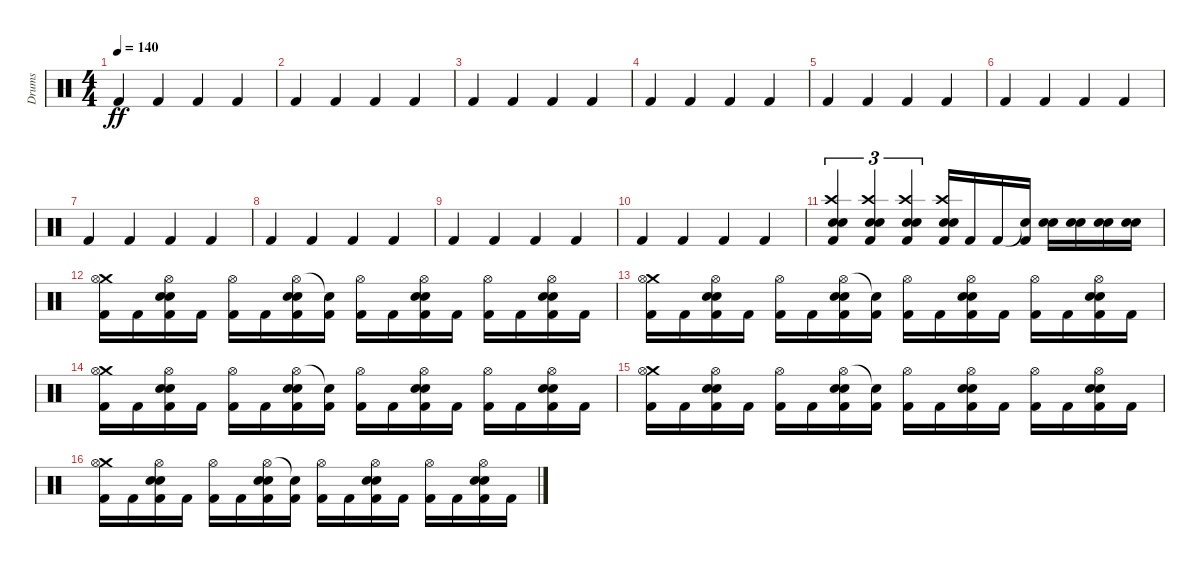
\track ("Drums" "Drums") {instrument percussion}
\staff {score}
\articulation defaults
\ts (4 4)
\tempo 140
\clef neutral
\ks c "Kick (hit) 2".4{dy ff} "Kick (hit) 2".4 "Kick (hit) 2".4 "Kick (hit) 2".4
|
"Kick (hit) 2".4 "Kick (hit) 2".4 "Kick (hit) 2".4 "Kick (hit) 2".4 |
"Kick (hit) 2".4 "Kick (hit) 2".4 "Kick (hit) 2".4 "Kick (hit) 2".4 |
"Kick (hit) 2".4 "Kick (hit) 2".4 "Kick (hit) 2".4 "Kick (hit) 2".4 |
"Kick (hit) 2".4 "Kick (hit) 2".4 "Kick (hit) 2".4 "Kick (hit) 2".4 |
"Kick (hit) 2".4 "Kick (hit) 2".4 "Kick (hit) 2".4 "Kick (hit) 2".4 |
"Kick (hit) 2".4 "Kick (hit) 2".4 "Kick (hit) 2".4 "Kick (hit) 2".4 |
"Kick (hit) 2".4 "Kick (hit) 2".4 "Kick (hit) 2".4 "Kick (hit) 2".4 |
"Kick (hit) 2".4 "Kick (hit) 2".4 "Kick (hit) 2".4 "Kick (hit) 2".4 |
"Kick (hit) 2".4 "Kick (hit) 2".4 "Kick (hit) 2".4 "Kick (hit) 2".4 |
("Crash high (hit)" "Electric Snare (hit)" "Electric Snare (hit)" "Kick (hit) 2").4{tu (3 2)} ("Crash high (hit)" "Electric Snare (hit)" "Electric Snare (hit)" "Kick (hit) 2").4{tu (3 2)} ("Crash high (hit)" "Electric Snare (hit)" "Electric Snare (hit)" "Kick (hit) 2").4{tu (3 2)} ("Crash high (hit)" "Electric Snare (hit)" "Electric Snare (hit)" "Kick (hit) 2").16 "Kick (hit) 2".16 "Kick (hit) 2".16 ("Snare (hit)"{t} "Kick (hit) 2").16 ("Electric Snare (hit)" "Electric Snare (hit)").16 ("Electric Snare (hit)" "Electric Snare (hit)").16 ("Electric Snare (hit)" "Electric Snare (hit)").16 ("Electric Snare (hit)" "Electric Snare (hit)").16 |
("Crash medium (hit)" "Hi-Hat (open)" "Kick (hit) 2").16 "Kick (hit) 2".16 ("Hi-Hat (open)" "Electric Snare (hit)" "Electric Snare (hit)" "Kick (hit) 2").16 "Kick (hit) 2".16 ("Hi-Hat (open)" "Kick (hit) 2").16 "Kick (hit) 2".16 ("Hi-Hat (open)" "Electric Snare (hit)" "Electric Snare (hit)" "Kick (hit) 2").16 ("Snare (hit)"{t} "Kick (hit) 2").16 ("Hi-Hat (open)" "Kick (hit) 2").16 "Kick (hit) 2".16 ("Hi-Hat (open)" "Electric Snare (hit)" "Electric Snare (hit)" "Kick (hit) 2").16 "Kick (hit) 2".16 ("Hi-Hat (open)" "Kick (hit) 2").16 "Kick (hit) 2".16 ("Hi-Hat (open)" "Electric Snare (hit)" "Electric Snare (hit)" "Kick (hit) 2").16 "Kick (hit) 2".16 |
("Crash medium (hit)" "Hi-Hat (open)" "Kick (hit) 2").16 "Kick (hit) 2".16 ("Hi-Hat (open)" "Electric Snare (hit)" "Electric Snare (hit)" "Kick (hit) 2").16 "Kick (hit) 2".16 ("Hi-Hat (open)" "Kick (hit) 2").16 "Kick (hit) 2".16 ("Hi-Hat (open)" "Electric Snare (hit)" "Electric Snare (hit)" "Kick (hit) 2").16 ("Snare (hit)"{t} "Kick (hit) 2").16 ("Hi-Hat (open)" "Kick (hit) 2").16 "Kick (hit) 2".16 ("Hi-Hat (open)" "Electric Snare (hit)" "Electric Snare (hit)" "Kick (hit) 2").16 "Kick (hit) 2".16 ("Hi-Hat (open)" "Kick (hit) 2").16 "Kick (hit) 2".16 ("Hi-Hat (open)" "Electric Snare (hit)" "Electric Snare (hit)" "Kick (hit) 2").16 "Kick (hit) 2".16 |
("Crash medium (hit)" "Hi-Hat (open)" "Kick (hit) 2").16 "Kick (hit) 2".16 ("Hi-Hat (open)" "Electric Snare (hit)" "Electric Snare (hit)" "Kick (hit) 2").16 "Kick (hit) 2".16 ("Hi-Hat (open)" "Kick (hit) 2").16 "Kick (hit) 2".16 ("Hi-Hat (open)" "Electric Snare (hit)" "Electric Snare (hit)" "Kick (hit) 2").16 ("Snare (hit)"{t} "Kick (hit) 2").16 ("Hi-Hat (open)" "Kick (hit) 2").16 "Kick (hit) 2".16 ("Hi-Hat (open)" "Electric Snare (hit)" "Electric Snare (hit)" "Kick (hit) 2").16 "Kick (hit) 2".16 ("Hi-Hat (open)" "Kick (hit) 2").16 "Kick (hit) 2".16 ("Hi-Hat (open)" "Electric Snare (hit)" "Electric Snare (hit)" "Kick (hit) 2").16 "Kick (hit) 2".16 |
("Crash medium (hit)" "Hi-Hat (open)" "Kick (hit) 2").16 "Kick (hit) 2".16 ("Hi-Hat (open)" "Electric Snare (hit)" "Electric Snare (hit)" "Kick (hit) 2").16 "Kick (hit) 2".16 ("Hi-Hat (open)" "Kick (hit) 2").16 "Kick (hit) 2".16 ("Hi-Hat (open)" "Electric Snare (hit)" "Electric Snare (hit)" "Kick (hit) 2").16 ("Snare (hit)"{t} "Kick (hit) 2").16 ("Hi-Hat (open)" "Kick (hit) 2").16 "Kick (hit) 2".16 ("Hi-Hat (open)" "Electric Snare (hit)" "Electric Snare (hit)" "Kick (hit) 2").16 "Kick (hit) 2".16 ("Hi-Hat (open)" "Kick (hit) 2").16 "Kick (hit) 2".16 ("Hi-Hat (open)" "Electric Snare (hit)" "Electric Snare (hit)" "Kick (hit) 2").16 "Kick (hit) 2".16 |
("Crash medium (hit)" "Hi-Hat (open)" "Kick (hit) 2").16 "Kick (hit) 2".16 ("Hi-Hat (open)" "Electric Snare (hit)" "Electric Snare (hit)" "Kick (hit) 2").16 "Kick (hit) 2".16 ("Hi-Hat (open)" "Kick (hit) 2").16 "Kick (hit) 2".16 ("Hi-Hat (open)" "Electric Snare (hit)" "Electric Snare (hit)" "Kick (hit) 2").16 ("Snare (hit)"{t} "Kick (hit) 2").16 ("Hi-Hat (open)" "Kick (hit) 2").16 "Kick (hit) 2".16 ("Hi-Hat (open)" "Electric Snare (hit)" "Electric Snare (hit)" "Kick (hit) 2").16 "Kick (hit) 2".16 ("Hi-Hat (open)" "Kick (hit) 2").16 "Kick (hit) 2".16 ("Hi-Hat (open)" "Electric Snare (hit)" "Electric Snare (hit)" "Kick (hit) 2").16 "Kick (hit) 2".16
